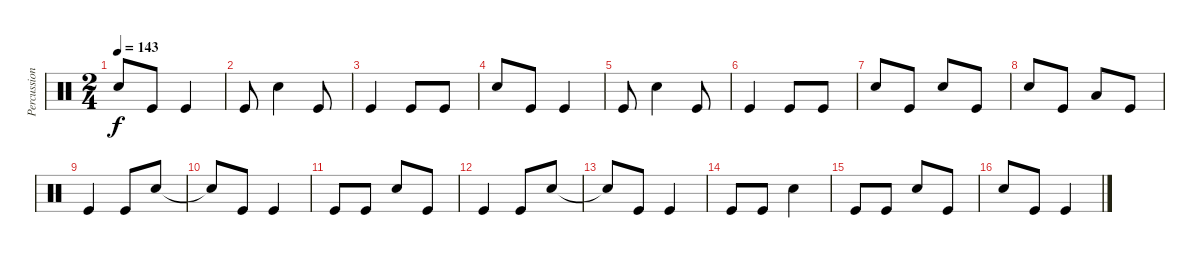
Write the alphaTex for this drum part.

\track ("Percussion" "Percussion") {instrument percussion}
\staff {score}
\articulation defaults
\ts (2 4)
\tempo 143
\clef neutral
\ks c "Electric Snare (hit)".8{dy f} "Kick (hit)".8 "Kick (hit)".4
|
"Kick (hit)".8 "Electric Snare (hit)".4 "Kick (hit)".8 |
"Kick (hit)".4 "Kick (hit)".8 "Kick (hit)".8 |
"Electric Snare (hit)".8 "Kick (hit)".8 "Kick (hit)".4 |
"Kick (hit)".8 "Electric Snare (hit)".4 "Kick (hit)".8 |
"Kick (hit)".4 "Kick (hit)".8 "Kick (hit)".8 |
"Electric Snare (hit)".8 "Kick (hit)".8 "Electric Snare (hit)".8 "Kick (hit)".8 |
"Electric Snare (hit)".8 "Kick (hit)".8 "Low Floor Tom (hit)".8 "Kick (hit)".8 |
"Kick (hit)".4{volume 16} "Kick (hit)".8 "Electric Snare (hit)".8 |
"Electric Snare (hit)"{t}.8 "Kick (hit)".8 "Kick (hit)".4 |
"Kick (hit)".8 "Kick (hit)".8 "Electric Snare (hit)".8 "Kick (hit)".8 |
"Kick (hit)".4 "Kick (hit)".8 "Electric Snare (hit)".8 |
"Snare (hit)"{t}.8 "Kick (hit)".8 "Kick (hit)".4 |
"Kick (hit)".8 "Kick (hit)".8 "Electric Snare (hit)".4 |
"Kick (hit)".8 "Kick (hit)".8 "Electric Snare (hit)".8 "Kick (hit)".8 |
"Electric Snare (hit)".8 "Kick (hit)".8 "Kick (hit)".4
